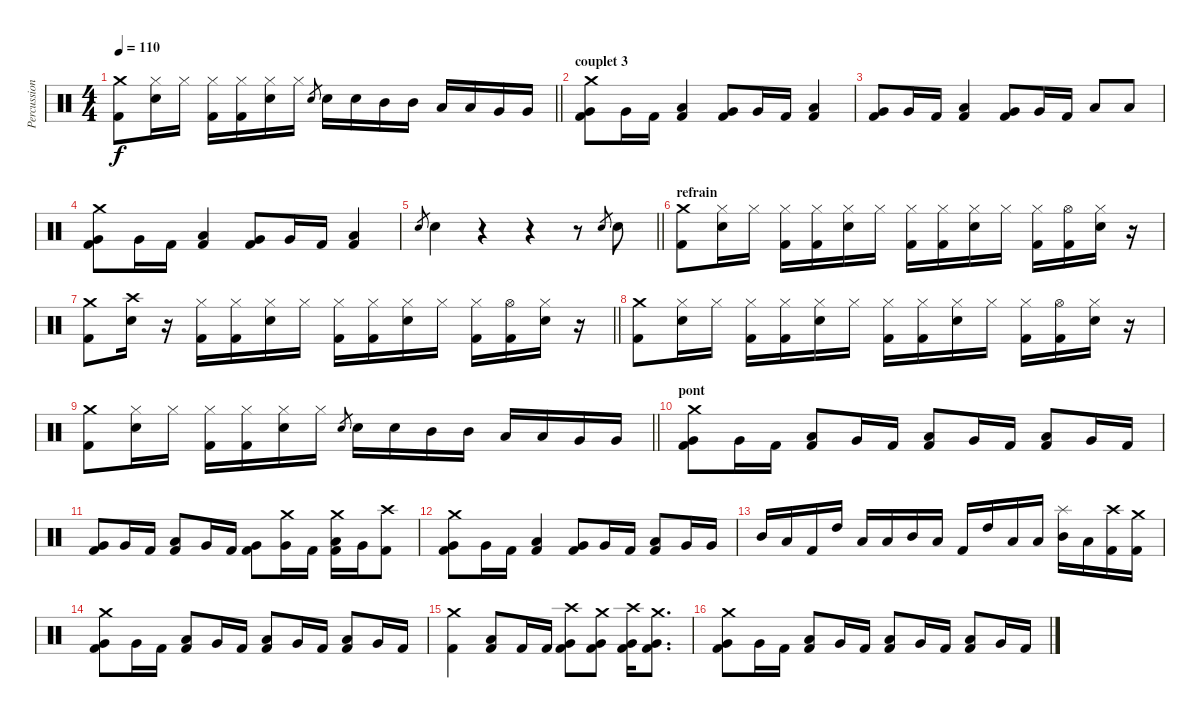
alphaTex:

\track ("Percussions" "Percussion") {instrument percussion}
\staff {score}
\articulation defaults
\ts (4 4)
\tempo 110
\clef neutral
\barLineRight lightlight
\ks c
("Crash medium (hit)" "Kick (hit) 2").8{dy f} ("Hi-Hat (closed)" "Electric Snare (hit)").16 "Hi-Hat (closed)".16 ("Hi-Hat (closed)" "Kick (hit) 2").16 ("Hi-Hat (closed)" "Kick (hit) 2").16 ("Hi-Hat (closed)" "Electric Snare (hit)").16 "Hi-Hat (closed)".16 "Electric Snare (hit)".8{gr} "Electric Snare (hit)".16 "Electric Snare (hit)".16 "Mid Tom (hit)".16 "Mid Tom (hit)".16 "Low Tom (hit)".16 "Low Tom (hit)".16 "Very Low Tom (hit)".16 "Very Low Tom (hit)".16 |
\section ("" "couplet 3")
("Crash medium (hit)" "Very Low Tom (hit)" "Kick (hit) 2").8 "Very Low Tom (hit)".16 "Kick (hit) 2".16 ("Low Tom (hit)" "Kick (hit) 2").4 ("Very Low Tom (hit)" "Kick (hit) 2").8 "Very Low Tom (hit)".16 "Kick (hit) 2".16 ("Low Tom (hit)" "Kick (hit) 2").4 |
("Very Low Tom (hit)" "Kick (hit) 2").8 "Very Low Tom (hit)".16 "Kick (hit) 2".16 ("Low Tom (hit)" "Kick (hit) 2").4 ("Very Low Tom (hit)" "Kick (hit) 2").8 "Very Low Tom (hit)".16 "Kick (hit) 2".16 "Low Tom (hit)".8 "Low Tom (hit)".8 |
("Crash medium (hit)" "Very Low Tom (hit)" "Kick (hit) 2").8 "Very Low Tom (hit)".16 "Kick (hit) 2".16 ("Low Tom (hit)" "Kick (hit) 2").4 ("Very Low Tom (hit)" "Kick (hit) 2").8 "Very Low Tom (hit)".16 "Kick (hit) 2".16 ("Low Tom (hit)" "Kick (hit) 2").4 |
\barLineRight lightlight "Electric Snare (hit)".8{gr} "Electric Snare (hit)".4
r.4 r.4 r.8 "Electric Snare (hit)".8{gr} "Electric Snare (hit)".8 |
\section ("" "refrain")
("Crash medium (hit)" "Kick (hit) 2").8 ("Hi-Hat (closed)" "Electric Snare (hit)").16 "Hi-Hat (closed)".16 ("Hi-Hat (closed)" "Kick (hit) 2").16 ("Hi-Hat (closed)" "Kick (hit) 2").16 ("Hi-Hat (closed)" "Electric Snare (hit)").16 "Hi-Hat (closed)".16 ("Hi-Hat (closed)" "Kick (hit) 2").16 ("Hi-Hat (closed)" "Kick (hit) 2").16 ("Hi-Hat (closed)" "Electric Snare (hit)").16 "Hi-Hat (closed)".16 ("Hi-Hat (closed)" "Kick (hit) 2").16 ("Hi-Hat (open)" "Kick (hit) 2").16 ("Hi-Hat (closed)" "Electric Snare (hit)").16 r.16 |
\barLineRight lightlight
("Crash medium (hit)" "Kick (hit) 2").8 ("Crash high (hit)" "Electric Snare (hit)").16 r.16 ("Hi-Hat (closed)" "Kick (hit) 2").16 ("Hi-Hat (closed)" "Kick (hit) 2").16 ("Hi-Hat (closed)" "Electric Snare (hit)").16 "Hi-Hat (closed)".16 ("Hi-Hat (closed)" "Kick (hit) 2").16 ("Hi-Hat (closed)" "Kick (hit) 2").16 ("Hi-Hat (closed)" "Electric Snare (hit)").16 "Hi-Hat (closed)".16 ("Hi-Hat (closed)" "Kick (hit) 2").16 ("Hi-Hat (open)" "Kick (hit) 2").16 ("Hi-Hat (closed)" "Electric Snare (hit)").16 r.16 |
("Crash medium (hit)" "Kick (hit) 2").8 ("Hi-Hat (closed)" "Electric Snare (hit)").16 "Hi-Hat (closed)".16 ("Hi-Hat (closed)" "Kick (hit) 2").16 ("Hi-Hat (closed)" "Kick (hit) 2").16 ("Hi-Hat (closed)" "Electric Snare (hit)").16 "Hi-Hat (closed)".16 ("Hi-Hat (closed)" "Kick (hit) 2").16 ("Hi-Hat (closed)" "Kick (hit) 2").16 ("Hi-Hat (closed)" "Electric Snare (hit)").16 "Hi-Hat (closed)".16 ("Hi-Hat (closed)" "Kick (hit) 2").16 ("Hi-Hat (open)" "Kick (hit) 2").16 ("Hi-Hat (closed)" "Electric Snare (hit)").16 r.16 |
\barLineRight lightlight
("Crash medium (hit)" "Kick (hit) 2").8 ("Hi-Hat (closed)" "Electric Snare (hit)").16 "Hi-Hat (closed)".16 ("Hi-Hat (closed)" "Kick (hit) 2").16 ("Hi-Hat (closed)" "Kick (hit) 2").16 ("Hi-Hat (closed)" "Electric Snare (hit)").16 "Hi-Hat (closed)".16 "Electric Snare (hit)".8{gr} "Electric Snare (hit)".16 "Electric Snare (hit)".16 "Mid Tom (hit)".16 "Mid Tom (hit)".16 "Low Tom (hit)".16 "Low Tom (hit)".16 "Very Low Tom (hit)".16 "Very Low Tom (hit)".16 |
\section ("" "pont")
("Crash medium (hit)" "Very Low Tom (hit)" "Kick (hit) 2").8 "Very Low Tom (hit)".16 "Kick (hit) 2".16 ("Low Tom (hit)" "Kick (hit) 2").8 "Very Low Tom (hit)".16 "Kick (hit) 2".16 ("Low Tom (hit)" "Kick (hit) 2").8 "Very Low Tom (hit)".16 "Kick (hit) 2".16 ("Low Tom (hit)" "Kick (hit) 2").8 "Very Low Tom (hit)".16 "Kick (hit) 2".16 |
("Very Low Tom (hit)" "Kick (hit) 2").8 "Very Low Tom (hit)".16 "Kick (hit) 2".16 ("Low Tom (hit)" "Kick (hit) 2").8 "Very Low Tom (hit)".16 "Kick (hit) 2".16 ("Very Low Tom (hit)" "Kick (hit) 2").8 ("Crash medium (hit)" "Very Low Tom (hit)").16 "Kick (hit) 2".16 ("Crash medium (hit)" "Low Tom (hit)" "Kick (hit) 2").16 "Very Low Tom (hit)".16 ("Crash high (hit)" "Kick (hit) 2").8 |
("Crash medium (hit)" "Very Low Tom (hit)" "Kick (hit) 2").8 "Very Low Tom (hit)".16 "Kick (hit) 2".16 ("Low Tom (hit)" "Kick (hit) 2").4 ("Very Low Tom (hit)" "Kick (hit) 2").8 "Very Low Tom (hit)".16 "Kick (hit) 2".16 ("Low Tom (hit)" "Kick (hit) 2").8 "Very Low Tom (hit)".16 "Very Low Tom (hit)".16 |
"Mid Tom (hit)".16 "Low Tom (hit)".16 "Kick (hit) 2".16 "High Tom (hit)".16 "Low Tom (hit)".16 "Low Tom (hit)".16 "Mid Tom (hit)".16 "Low Tom (hit)".16 "Kick (hit) 2".16 "High Tom (hit)".16 "Low Tom (hit)".16 "Low Tom (hit)".16 ("Splash (hit)" "Mid Tom (hit)").16 "Low Tom (hit)".16 ("Crash high (hit)" "Kick (hit) 2").16 ("Crash medium (hit)" "Kick (hit) 2").16 |
("Crash medium (hit)" "Very Low Tom (hit)" "Kick (hit) 2").8 "Very Low Tom (hit)".16 "Kick (hit) 2".16 ("Low Tom (hit)" "Kick (hit) 2").8 "Very Low Tom (hit)".16 "Kick (hit) 2".16 ("Low Tom (hit)" "Kick (hit) 2").8 "Very Low Tom (hit)".16 "Kick (hit) 2".16 ("Low Tom (hit)" "Kick (hit) 2").8 "Very Low Tom (hit)".16 "Kick (hit) 2".16 |
("Crash medium (hit)" "Kick (hit) 2").4 ("Low Tom (hit)" "Kick (hit) 2").8 "Kick (hit) 2".16 "Kick (hit) 2".16 ("Crash high (hit)" "Very Low Tom (hit)" "Kick (hit) 2").8 ("Crash medium (hit)" "Very Low Tom (hit)" "Kick (hit) 2").8 ("Crash high (hit)" "Very Low Tom (hit)" "Kick (hit) 2").16 ("Crash medium (hit)" "Very Low Tom (hit)" "Kick (hit) 2").8{d} |
("Crash medium (hit)" "Very Low Tom (hit)" "Kick (hit) 2").8 "Very Low Tom (hit)".16 "Kick (hit) 2".16 ("Low Tom (hit)" "Kick (hit) 2").8 "Very Low Tom (hit)".16 "Kick (hit) 2".16 ("Low Tom (hit)" "Kick (hit) 2").8 "Very Low Tom (hit)".16 "Kick (hit) 2".16 ("Low Tom (hit)" "Kick (hit) 2").8 "Very Low Tom (hit)".16 "Kick (hit) 2".16
